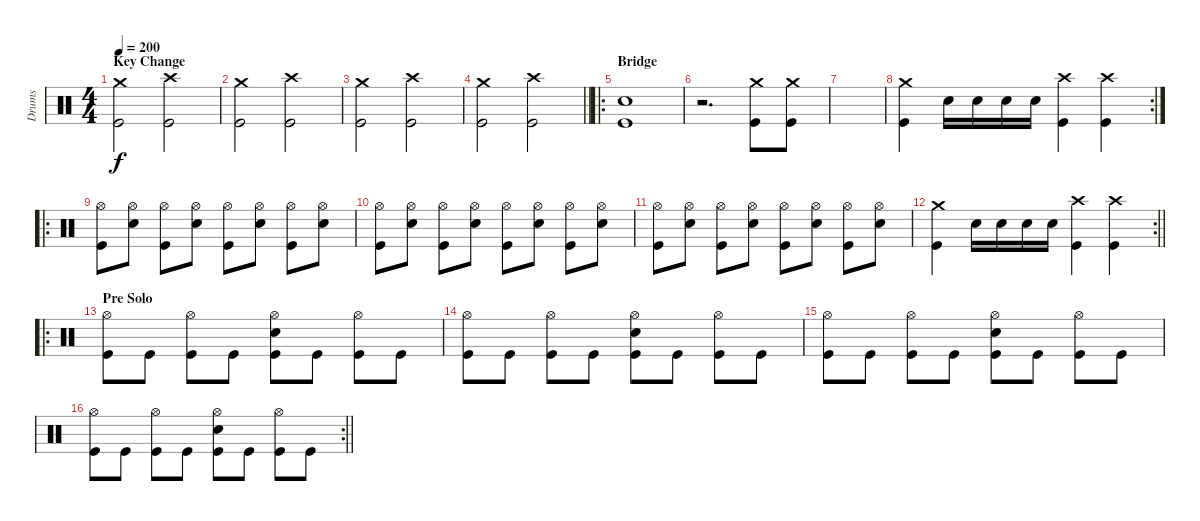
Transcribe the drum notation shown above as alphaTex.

\track ("Drums" "Drums") {instrument percussion}
\staff {score}
\articulation defaults
\ts (4 4)
\section ("" "Key Change")
\tempo 200
\clef neutral
\ks c
("Crash medium (hit)" "Kick (hit)").2{dy f} ("Crash high (hit)" "Kick (hit)").2 |
("Crash medium (hit)" "Kick (hit)").2 ("Crash high (hit)" "Kick (hit)").2 |
("Crash medium (hit)" "Kick (hit)").2 ("Crash high (hit)" "Kick (hit)").2 |
\barLineRight lightlight
("Crash medium (hit)" "Kick (hit)").2 ("Crash high (hit)" "Kick (hit)").2 |
\ro
\section ("" "Bridge")
("Snare (hit) 2" "Kick (hit)").1 |
r.2{d} ("Crash medium (hit)" "Kick (hit)").8 ("Crash medium (hit)" "Kick (hit)").8 |
|
\rc 2
("Crash medium (hit)" "Kick (hit)").4 "Snare (hit) 2".16 "Snare (hit) 2".16 "Snare (hit) 2".16 "Snare (hit) 2".16 ("Crash high (hit)" "Kick (hit)").4 ("Crash high (hit)" "Kick (hit)").4 |
\ro
("Hi-Hat (open)" "Kick (hit)").8 ("Hi-Hat (open)" "Snare (hit) 2").8 ("Hi-Hat (open)" "Kick (hit)").8 ("Hi-Hat (open)" "Snare (hit) 2").8 ("Hi-Hat (open)" "Kick (hit)").8 ("Hi-Hat (open)" "Snare (hit) 2").8 ("Hi-Hat (open)" "Kick (hit)").8 ("Hi-Hat (open)" "Snare (hit) 2").8 |
("Hi-Hat (open)" "Kick (hit)").8 ("Hi-Hat (open)" "Snare (hit) 2").8 ("Hi-Hat (open)" "Kick (hit)").8 ("Hi-Hat (open)" "Snare (hit) 2").8 ("Hi-Hat (open)" "Kick (hit)").8 ("Hi-Hat (open)" "Snare (hit) 2").8 ("Hi-Hat (open)" "Kick (hit)").8 ("Hi-Hat (open)" "Snare (hit) 2").8 |
("Hi-Hat (open)" "Kick (hit)").8 ("Hi-Hat (open)" "Snare (hit) 2").8 ("Hi-Hat (open)" "Kick (hit)").8 ("Hi-Hat (open)" "Snare (hit) 2").8 ("Hi-Hat (open)" "Kick (hit)").8 ("Hi-Hat (open)" "Snare (hit) 2").8 ("Hi-Hat (open)" "Kick (hit)").8 ("Hi-Hat (open)" "Snare (hit) 2").8 |
\rc 2
\barLineRight lightlight
("Crash medium (hit)" "Kick (hit)").4 "Snare (hit) 2".16 "Snare (hit) 2".16 "Snare (hit) 2".16 "Snare (hit) 2".16 ("Crash high (hit)" "Kick (hit)").4 ("Crash high (hit)" "Kick (hit)").4 |
\ro
\section ("" "Pre Solo")
("Hi-Hat (open)" "Kick (hit)").8 "Kick (hit)".8 ("Hi-Hat (open)" "Kick (hit)").8 "Kick (hit)".8 ("Hi-Hat (open)" "Snare (hit) 2" "Kick (hit)").8 "Kick (hit)".8 ("Hi-Hat (open)" "Kick (hit)").8 "Kick (hit)".8 |
("Hi-Hat (open)" "Kick (hit)").8 "Kick (hit)".8 ("Hi-Hat (open)" "Kick (hit)").8 "Kick (hit)".8 ("Hi-Hat (open)" "Snare (hit) 2" "Kick (hit)").8 "Kick (hit)".8 ("Hi-Hat (open)" "Kick (hit)").8 "Kick (hit)".8 |
("Hi-Hat (open)" "Kick (hit)").8 "Kick (hit)".8 ("Hi-Hat (open)" "Kick (hit)").8 "Kick (hit)".8 ("Hi-Hat (open)" "Snare (hit) 2" "Kick (hit)").8 "Kick (hit)".8 ("Hi-Hat (open)" "Kick (hit)").8 "Kick (hit)".8 |
\rc 2
\barLineRight lightlight
("Hi-Hat (open)" "Kick (hit)").8 "Kick (hit)".8 ("Hi-Hat (open)" "Kick (hit)").8 "Kick (hit)".8 ("Hi-Hat (open)" "Snare (hit) 2" "Kick (hit)").8 "Kick (hit)".8 ("Hi-Hat (open)" "Kick (hit)").8 "Kick (hit)".8
